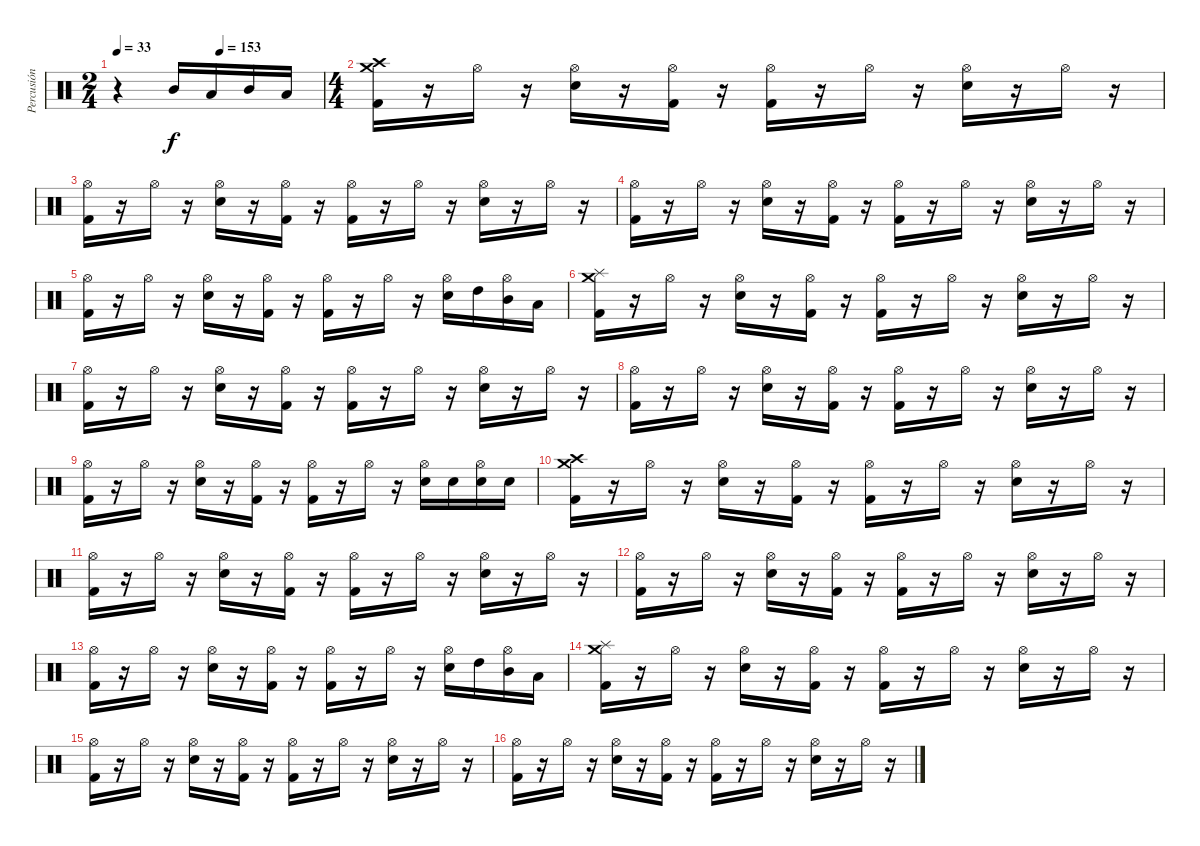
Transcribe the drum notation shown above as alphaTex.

\track ("Percusión" "Percusión") {instrument percussion}
\staff {score}
\articulation defaults
\ts (2 4)
\tempo 33
\tempo (153 0.5)
\clef neutral
\ks c
r.4{dy f} "Mid Tom (hit)".16 "Low Tom (hit)".16 "Mid Tom (hit)".16 "Low Tom (hit)".16 |
\ts (4 4)
("Kick (hit) 2" "Crash medium (hit)" "Crash high (hit)").16 r.16 "Hi-Hat (open)".16 r.16 ("Electric Snare (hit)" "Hi-Hat (open)").16 r.16 ("Kick (hit) 2" "Hi-Hat (open)").16 r.16 ("Kick (hit) 2" "Hi-Hat (open)").16 r.16 "Hi-Hat (open)".16 r.16 ("Electric Snare (hit)" "Hi-Hat (open)").16 r.16 "Hi-Hat (open)".16 r.16 |
("Kick (hit) 2" "Hi-Hat (open)").16 r.16 "Hi-Hat (open)".16 r.16 ("Electric Snare (hit)" "Hi-Hat (open)").16 r.16 ("Kick (hit) 2" "Hi-Hat (open)").16 r.16 ("Kick (hit) 2" "Hi-Hat (open)").16 r.16 "Hi-Hat (open)".16 r.16 ("Electric Snare (hit)" "Hi-Hat (open)").16 r.16 "Hi-Hat (open)".16 r.16 |
("Kick (hit) 2" "Hi-Hat (open)").16 r.16 "Hi-Hat (open)".16 r.16 ("Electric Snare (hit)" "Hi-Hat (open)").16 r.16 ("Kick (hit) 2" "Hi-Hat (open)").16 r.16 ("Kick (hit) 2" "Hi-Hat (open)").16 r.16 "Hi-Hat (open)".16 r.16 ("Electric Snare (hit)" "Hi-Hat (open)").16 r.16 "Hi-Hat (open)".16 r.16 |
("Kick (hit) 2" "Hi-Hat (open)").16 r.16 "Hi-Hat (open)".16 r.16 ("Electric Snare (hit)" "Hi-Hat (open)").16 r.16 ("Kick (hit) 2" "Hi-Hat (open)").16 r.16 ("Kick (hit) 2" "Hi-Hat (open)").16 r.16 "Hi-Hat (open)".16 r.16 ("Electric Snare (hit)" "Hi-Hat (open)").16 "High Tom (hit)".16 ("Mid Tom (hit)" "Hi-Hat (open)").16 "Low Tom (hit)".16 |
("Kick (hit) 2" "Crash medium (hit)" "Splash (hit)").16 r.16 "Hi-Hat (open)".16 r.16 ("Electric Snare (hit)" "Hi-Hat (open)").16 r.16 ("Kick (hit) 2" "Hi-Hat (open)").16 r.16 ("Kick (hit) 2" "Hi-Hat (open)").16 r.16 "Hi-Hat (open)".16 r.16 ("Electric Snare (hit)" "Hi-Hat (open)").16 r.16 "Hi-Hat (open)".16 r.16 |
("Kick (hit) 2" "Hi-Hat (open)").16 r.16 "Hi-Hat (open)".16 r.16 ("Electric Snare (hit)" "Hi-Hat (open)").16 r.16 ("Kick (hit) 2" "Hi-Hat (open)").16 r.16 ("Kick (hit) 2" "Hi-Hat (open)").16 r.16 "Hi-Hat (open)".16 r.16 ("Electric Snare (hit)" "Hi-Hat (open)").16 r.16 "Hi-Hat (open)".16 r.16 |
("Kick (hit) 2" "Hi-Hat (open)").16 r.16 "Hi-Hat (open)".16 r.16 ("Electric Snare (hit)" "Hi-Hat (open)").16 r.16 ("Kick (hit) 2" "Hi-Hat (open)").16 r.16 ("Kick (hit) 2" "Hi-Hat (open)").16 r.16 "Hi-Hat (open)".16 r.16 ("Electric Snare (hit)" "Hi-Hat (open)").16 r.16 "Hi-Hat (open)".16 r.16 |
("Kick (hit) 2" "Hi-Hat (open)").16 r.16 "Hi-Hat (open)".16 r.16 ("Electric Snare (hit)" "Hi-Hat (open)").16 r.16 ("Kick (hit) 2" "Hi-Hat (open)").16 r.16 ("Kick (hit) 2" "Hi-Hat (open)").16 r.16 "Hi-Hat (open)".16 r.16 ("Electric Snare (hit)" "Hi-Hat (open)").16 "Electric Snare (hit)".16 ("Electric Snare (hit)" "Hi-Hat (open)").16 "Electric Snare (hit)".16 |
("Kick (hit) 2" "Crash medium (hit)" "Crash high (hit)").16 r.16 "Hi-Hat (open)".16 r.16 ("Electric Snare (hit)" "Hi-Hat (open)").16 r.16 ("Kick (hit) 2" "Hi-Hat (open)").16 r.16 ("Kick (hit) 2" "Hi-Hat (open)").16 r.16 "Hi-Hat (open)".16 r.16 ("Electric Snare (hit)" "Hi-Hat (open)").16 r.16 "Hi-Hat (open)".16 r.16 |
("Kick (hit) 2" "Hi-Hat (open)").16 r.16 "Hi-Hat (open)".16 r.16 ("Electric Snare (hit)" "Hi-Hat (open)").16 r.16 ("Kick (hit) 2" "Hi-Hat (open)").16 r.16 ("Kick (hit) 2" "Hi-Hat (open)").16 r.16 "Hi-Hat (open)".16 r.16 ("Electric Snare (hit)" "Hi-Hat (open)").16 r.16 "Hi-Hat (open)".16 r.16 |
("Kick (hit) 2" "Hi-Hat (open)").16 r.16 "Hi-Hat (open)".16 r.16 ("Electric Snare (hit)" "Hi-Hat (open)").16 r.16 ("Kick (hit) 2" "Hi-Hat (open)").16 r.16 ("Kick (hit) 2" "Hi-Hat (open)").16 r.16 "Hi-Hat (open)".16 r.16 ("Electric Snare (hit)" "Hi-Hat (open)").16 r.16 "Hi-Hat (open)".16 r.16 |
("Kick (hit) 2" "Hi-Hat (open)").16 r.16 "Hi-Hat (open)".16 r.16 ("Electric Snare (hit)" "Hi-Hat (open)").16 r.16 ("Kick (hit) 2" "Hi-Hat (open)").16 r.16 ("Kick (hit) 2" "Hi-Hat (open)").16 r.16 "Hi-Hat (open)".16 r.16 ("Electric Snare (hit)" "Hi-Hat (open)").16 "High Tom (hit)".16 ("Mid Tom (hit)" "Hi-Hat (open)").16 "Low Tom (hit)".16 |
("Kick (hit) 2" "Crash medium (hit)" "Splash (hit)").16 r.16 "Hi-Hat (open)".16 r.16 ("Electric Snare (hit)" "Hi-Hat (open)").16 r.16 ("Kick (hit) 2" "Hi-Hat (open)").16 r.16 ("Kick (hit) 2" "Hi-Hat (open)").16 r.16 "Hi-Hat (open)".16 r.16 ("Electric Snare (hit)" "Hi-Hat (open)").16 r.16 "Hi-Hat (open)".16 r.16 |
("Kick (hit) 2" "Hi-Hat (open)").16 r.16 "Hi-Hat (open)".16 r.16 ("Electric Snare (hit)" "Hi-Hat (open)").16 r.16 ("Kick (hit) 2" "Hi-Hat (open)").16 r.16 ("Kick (hit) 2" "Hi-Hat (open)").16 r.16 "Hi-Hat (open)".16 r.16 ("Electric Snare (hit)" "Hi-Hat (open)").16 r.16 "Hi-Hat (open)".16 r.16 |
("Kick (hit) 2" "Hi-Hat (open)").16 r.16 "Hi-Hat (open)".16 r.16 ("Electric Snare (hit)" "Hi-Hat (open)").16 r.16 ("Kick (hit) 2" "Hi-Hat (open)").16 r.16 ("Kick (hit) 2" "Hi-Hat (open)").16 r.16 "Hi-Hat (open)".16 r.16 ("Electric Snare (hit)" "Hi-Hat (open)").16 r.16 "Hi-Hat (open)".16 r.16
